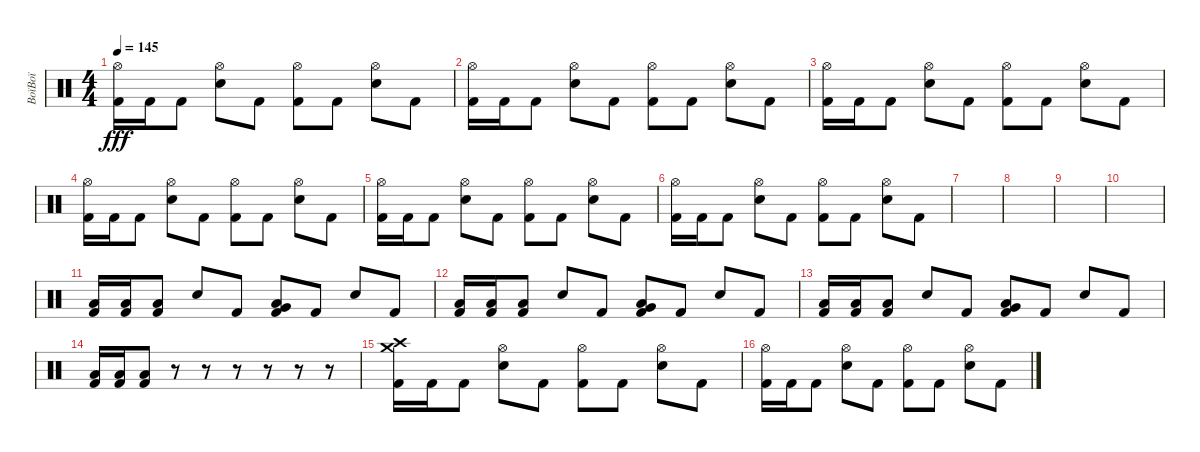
\track ("BoïBoï" "BoïBoï") {instrument percussion}
\staff {score}
\articulation defaults
\ts (4 4)
\tempo 145
\clef neutral
\ks c
("Hi-Hat (open)" "Kick (hit) 2").16{dy fff} "Kick (hit) 2".16 "Kick (hit) 2".8 ("Hi-Hat (open)" "Electric Snare (hit)").8 "Kick (hit) 2".8 ("Hi-Hat (open)" "Kick (hit) 2").8 "Kick (hit) 2".8 ("Hi-Hat (open)" "Electric Snare (hit)").8 "Kick (hit) 2".8 |
("Hi-Hat (open)" "Kick (hit) 2").16 "Kick (hit) 2".16 "Kick (hit) 2".8 ("Hi-Hat (open)" "Electric Snare (hit)").8 "Kick (hit) 2".8 ("Hi-Hat (open)" "Kick (hit) 2").8 "Kick (hit) 2".8 ("Hi-Hat (open)" "Electric Snare (hit)").8 "Kick (hit) 2".8 |
("Hi-Hat (open)" "Kick (hit) 2").16 "Kick (hit) 2".16 "Kick (hit) 2".8 ("Hi-Hat (open)" "Electric Snare (hit)").8 "Kick (hit) 2".8 ("Hi-Hat (open)" "Kick (hit) 2").8 "Kick (hit) 2".8 ("Hi-Hat (open)" "Electric Snare (hit)").8 "Kick (hit) 2".8 |
("Hi-Hat (open)" "Kick (hit) 2").16 "Kick (hit) 2".16 "Kick (hit) 2".8 ("Hi-Hat (open)" "Electric Snare (hit)").8 "Kick (hit) 2".8 ("Hi-Hat (open)" "Kick (hit) 2").8 "Kick (hit) 2".8 ("Hi-Hat (open)" "Electric Snare (hit)").8 "Kick (hit) 2".8 |
("Hi-Hat (open)" "Kick (hit) 2").16 "Kick (hit) 2".16 "Kick (hit) 2".8 ("Hi-Hat (open)" "Electric Snare (hit)").8 "Kick (hit) 2".8 ("Hi-Hat (open)" "Kick (hit) 2").8 "Kick (hit) 2".8 ("Hi-Hat (open)" "Electric Snare (hit)").8 "Kick (hit) 2".8 |
("Hi-Hat (open)" "Kick (hit) 2").16 "Kick (hit) 2".16 "Kick (hit) 2".8 ("Hi-Hat (open)" "Electric Snare (hit)").8 "Kick (hit) 2".8 ("Hi-Hat (open)" "Kick (hit) 2").8 "Kick (hit) 2".8 ("Hi-Hat (open)" "Electric Snare (hit)").8 "Kick (hit) 2".8 |
|
|
|
|
("Low Tom (hit)" "Kick (hit) 2").16 ("Low Tom (hit)" "Kick (hit) 2").16 ("Low Tom (hit)" "Kick (hit) 2").8 "Electric Snare (hit)".8 "Kick (hit) 2".8 ("Very Low Tom (hit)" "Low Floor Tom (hit)" "Kick (hit) 2").8 "Kick (hit) 2".8 "Electric Snare (hit)".8 "Kick (hit) 2".8 |
("Low Tom (hit)" "Kick (hit) 2").16 ("Low Tom (hit)" "Kick (hit) 2").16 ("Low Tom (hit)" "Kick (hit) 2").8 "Electric Snare (hit)".8 "Kick (hit) 2".8 ("Very Low Tom (hit)" "Low Floor Tom (hit)" "Kick (hit) 2").8 "Kick (hit) 2".8 "Electric Snare (hit)".8 "Kick (hit) 2".8 |
("Low Tom (hit)" "Kick (hit) 2").16 ("Low Tom (hit)" "Kick (hit) 2").16 ("Low Tom (hit)" "Kick (hit) 2").8 "Electric Snare (hit)".8 "Kick (hit) 2".8 ("Very Low Tom (hit)" "Low Floor Tom (hit)" "Kick (hit) 2").8 "Kick (hit) 2".8 "Electric Snare (hit)".8 "Kick (hit) 2".8 |
("Low Tom (hit)" "Kick (hit) 2").16 ("Low Tom (hit)" "Kick (hit) 2").16 ("Low Tom (hit)" "Kick (hit) 2").8 r.8 r.8 r.8 r.8 r.8 r.8 |
("Crash medium (hit)" "Crash high (hit)" "Kick (hit) 2").16 "Kick (hit) 2".16 "Kick (hit) 2".8 ("Hi-Hat (open)" "Electric Snare (hit)").8 "Kick (hit) 2".8 ("Hi-Hat (open)" "Kick (hit) 2").8 "Kick (hit) 2".8 ("Hi-Hat (open)" "Electric Snare (hit)").8 "Kick (hit) 2".8 |
("Hi-Hat (open)" "Kick (hit) 2").16 "Kick (hit) 2".16 "Kick (hit) 2".8 ("Hi-Hat (open)" "Electric Snare (hit)").8 "Kick (hit) 2".8 ("Hi-Hat (open)" "Kick (hit) 2").8 "Kick (hit) 2".8 ("Hi-Hat (open)" "Electric Snare (hit)").8 "Kick (hit) 2".8
